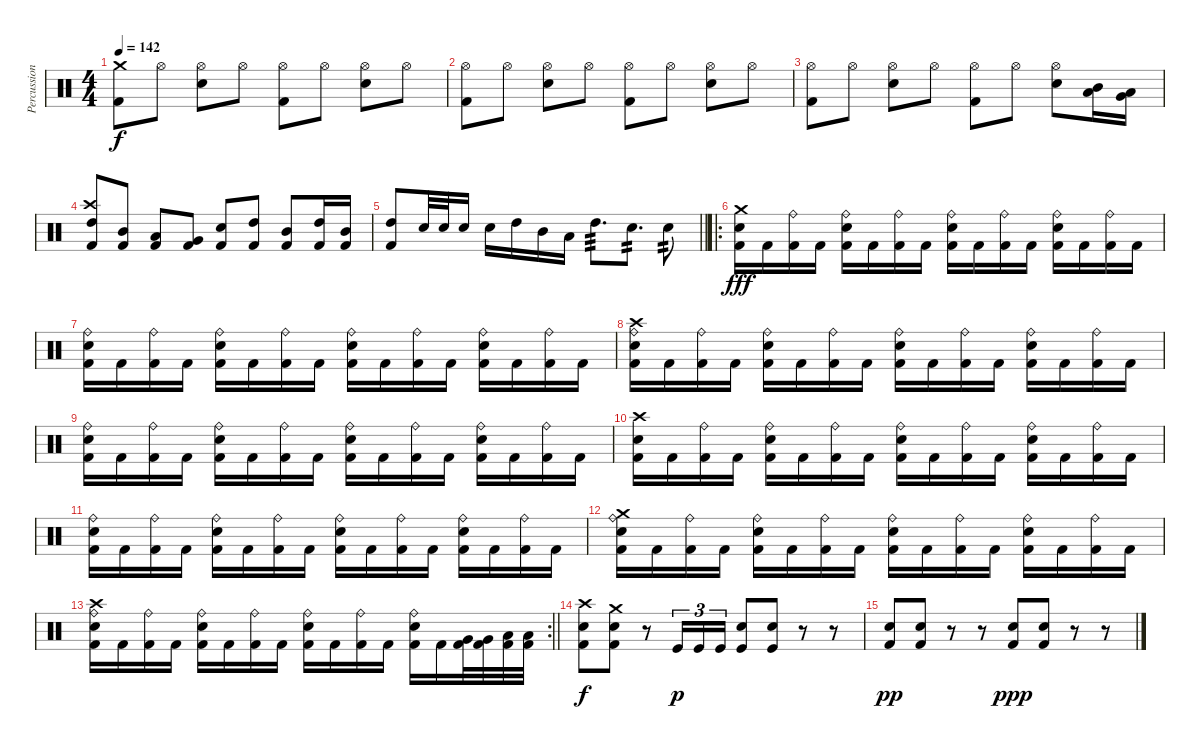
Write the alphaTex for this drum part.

\track ("Percussions" "Percussion") {instrument percussion}
\staff {score}
\articulation defaults
\ts (4 4)
\tempo 142
\clef neutral
\ks c
("Crash medium (hit)" "Kick (hit) 2").8{dy f} "Hi-Hat (open)".8 ("Hi-Hat (open)" "Electric Snare (hit)").8 "Hi-Hat (open)".8 ("Hi-Hat (open)" "Kick (hit) 2").8 "Hi-Hat (open)".8 ("Hi-Hat (open)" "Electric Snare (hit)").8 "Hi-Hat (open)".8 |
("Hi-Hat (open)" "Kick (hit) 2").8 "Hi-Hat (open)".8 ("Hi-Hat (open)" "Electric Snare (hit)").8 "Hi-Hat (open)".8 ("Hi-Hat (open)" "Kick (hit) 2").8 "Hi-Hat (open)".8 ("Hi-Hat (open)" "Electric Snare (hit)").8 "Hi-Hat (open)".8 |
("Hi-Hat (open)" "Kick (hit) 2").8 "Hi-Hat (open)".8 ("Hi-Hat (open)" "Electric Snare (hit)").8 "Hi-Hat (open)".8 ("Hi-Hat (open)" "Kick (hit) 2").8 "Hi-Hat (open)".8 ("Hi-Hat (open)" "Electric Snare (hit)").8 ("Mid Tom (hit)" "Low Tom (hit)").16 ("Low Tom (hit)" "Very Low Tom (hit)").16 |
("Crash high (hit)" "High Tom (hit)" "Kick (hit) 2").8 ("Mid Tom (hit)" "Kick (hit) 2").8 ("Low Tom (hit)" "Kick (hit) 2").8 ("Very Low Tom (hit)" "Kick (hit) 2").8 ("Electric Snare (hit)" "Kick (hit) 2").8 ("High Tom (hit)" "Kick (hit) 2").8 ("Mid Tom (hit)" "Kick (hit) 2").8 ("High Tom (hit)" "Kick (hit) 2").16 ("Mid Tom (hit)" "Kick (hit) 2").16 |
\barLineRight lightlight
("High Tom (hit)" "Kick (hit) 2").8 "Electric Snare (hit)".32 "Electric Snare (hit)".32 "Electric Snare (hit)".16 "Electric Snare (hit)".16 "High Tom (hit)".16 "Mid Tom (hit)".16 "Low Tom (hit)".16 "High Tom (hit)".8{d tp 3} "Electric Snare (hit)".8{d tp 2} "Electric Snare (hit)".8{tp 2} |
\ro
("Crash medium (hit)" "Electric Snare (hit)" "Kick (hit) 2").16{dy fff} "Kick (hit) 2".16 ("Ride (bell)" "Kick (hit) 2").16 "Kick (hit) 2".16 ("Ride (bell)" "Electric Snare (hit)" "Kick (hit) 2").16 "Kick (hit) 2".16 ("Ride (bell)" "Kick (hit) 2").16 "Kick (hit) 2".16 ("Ride (bell)" "Electric Snare (hit)" "Kick (hit) 2").16 "Kick (hit) 2".16 ("Ride (bell)" "Kick (hit) 2").16 "Kick (hit) 2".16 ("Ride (bell)" "Electric Snare (hit)" "Kick (hit) 2").16 "Kick (hit) 2".16 ("Ride (bell)" "Kick (hit) 2").16 "Kick (hit) 2".16 |
("Ride (bell)" "Electric Snare (hit)" "Kick (hit) 2").16 "Kick (hit) 2".16 ("Ride (bell)" "Kick (hit) 2").16 "Kick (hit) 2".16 ("Ride (bell)" "Electric Snare (hit)" "Kick (hit) 2").16 "Kick (hit) 2".16 ("Ride (bell)" "Kick (hit) 2").16 "Kick (hit) 2".16 ("Ride (bell)" "Electric Snare (hit)" "Kick (hit) 2").16 "Kick (hit) 2".16 ("Ride (bell)" "Kick (hit) 2").16 "Kick (hit) 2".16 ("Ride (bell)" "Electric Snare (hit)" "Kick (hit) 2").16 "Kick (hit) 2".16 ("Ride (bell)" "Kick (hit) 2").16 "Kick (hit) 2".16 |
("Ride (bell)" "Crash high (hit)" "Electric Snare (hit)" "Kick (hit) 2").16 "Kick (hit) 2".16 ("Ride (bell)" "Kick (hit) 2").16 "Kick (hit) 2".16 ("Ride (bell)" "Electric Snare (hit)" "Kick (hit) 2").16 "Kick (hit) 2".16 ("Ride (bell)" "Kick (hit) 2").16 "Kick (hit) 2".16 ("Ride (bell)" "Electric Snare (hit)" "Kick (hit) 2").16 "Kick (hit) 2".16 ("Ride (bell)" "Kick (hit) 2").16 "Kick (hit) 2".16 ("Ride (bell)" "Electric Snare (hit)" "Kick (hit) 2").16 "Kick (hit) 2".16 ("Ride (bell)" "Kick (hit) 2").16 "Kick (hit) 2".16 |
("Ride (bell)" "Electric Snare (hit)" "Kick (hit) 2").16 "Kick (hit) 2".16 ("Ride (bell)" "Kick (hit) 2").16 "Kick (hit) 2".16 ("Ride (bell)" "Electric Snare (hit)" "Kick (hit) 2").16 "Kick (hit) 2".16 ("Ride (bell)" "Kick (hit) 2").16 "Kick (hit) 2".16 ("Ride (bell)" "Electric Snare (hit)" "Kick (hit) 2").16 "Kick (hit) 2".16 ("Ride (bell)" "Kick (hit) 2").16 "Kick (hit) 2".16 ("Ride (bell)" "Electric Snare (hit)" "Kick (hit) 2").16 "Kick (hit) 2".16 ("Ride (bell)" "Kick (hit) 2").16 "Kick (hit) 2".16 |
("Crash high (hit)" "Electric Snare (hit)" "Kick (hit) 2").16 "Kick (hit) 2".16 ("Ride (bell)" "Kick (hit) 2").16 "Kick (hit) 2".16 ("Ride (bell)" "Electric Snare (hit)" "Kick (hit) 2").16 "Kick (hit) 2".16 ("Ride (bell)" "Kick (hit) 2").16 "Kick (hit) 2".16 ("Ride (bell)" "Electric Snare (hit)" "Kick (hit) 2").16 "Kick (hit) 2".16 ("Ride (bell)" "Kick (hit) 2").16 "Kick (hit) 2".16 ("Ride (bell)" "Electric Snare (hit)" "Kick (hit) 2").16 "Kick (hit) 2".16 ("Ride (bell)" "Kick (hit) 2").16 "Kick (hit) 2".16 |
("Ride (bell)" "Electric Snare (hit)" "Kick (hit) 2").16 "Kick (hit) 2".16 ("Ride (bell)" "Kick (hit) 2").16 "Kick (hit) 2".16 ("Ride (bell)" "Electric Snare (hit)" "Kick (hit) 2").16 "Kick (hit) 2".16 ("Ride (bell)" "Kick (hit) 2").16 "Kick (hit) 2".16 ("Ride (bell)" "Electric Snare (hit)" "Kick (hit) 2").16 "Kick (hit) 2".16 ("Ride (bell)" "Kick (hit) 2").16 "Kick (hit) 2".16 ("Ride (bell)" "Electric Snare (hit)" "Kick (hit) 2").16 "Kick (hit) 2".16 ("Ride (bell)" "Kick (hit) 2").16 "Kick (hit) 2".16 |
("Crash medium (hit)" "Ride (bell)" "Electric Snare (hit)" "Kick (hit) 2").16 "Kick (hit) 2".16 ("Ride (bell)" "Kick (hit) 2").16 "Kick (hit) 2".16 ("Ride (bell)" "Electric Snare (hit)" "Kick (hit) 2").16 "Kick (hit) 2".16 ("Ride (bell)" "Kick (hit) 2").16 "Kick (hit) 2".16 ("Ride (bell)" "Electric Snare (hit)" "Kick (hit) 2").16 "Kick (hit) 2".16 ("Ride (bell)" "Kick (hit) 2").16 "Kick (hit) 2".16 ("Ride (bell)" "Electric Snare (hit)" "Kick (hit) 2").16 "Kick (hit) 2".16 ("Ride (bell)" "Kick (hit) 2").16 "Kick (hit) 2".16 |
\rc 2
\barLineRight lightlight
("Ride (bell)" "Crash high (hit)" "Electric Snare (hit)" "Kick (hit) 2").16 "Kick (hit) 2".16 ("Ride (bell)" "Kick (hit) 2").16 "Kick (hit) 2".16 ("Ride (bell)" "Electric Snare (hit)" "Kick (hit) 2").16 "Kick (hit) 2".16 ("Ride (bell)" "Kick (hit) 2").16 "Kick (hit) 2".16 ("Ride (bell)" "Electric Snare (hit)" "Kick (hit) 2").16 "Kick (hit) 2".16 ("Ride (bell)" "Kick (hit) 2").16 "Kick (hit) 2".16 ("Ride (bell)" "Electric Snare (hit)" "Kick (hit) 2").16 "Kick (hit) 2".16 ("Very Low Tom (hit)" "Kick (hit) 2").32 ("Very Low Tom (hit)" "Kick (hit) 2").32 ("Low Floor Tom (hit)" "Kick (hit) 2").32 ("Low Floor Tom (hit)" "Kick (hit) 2").32 |
("Crash high (hit)" "Electric Snare (hit)" "Kick (hit) 2").8{dy f} ("Crash medium (hit)" "Electric Snare (hit)" "Kick (hit) 2").8 r.8 "Kick (hit)".16{tu (3 2) dy p} "Kick (hit)".16{tu (3 2)} "Kick (hit)".16{tu (3 2)} ("Electric Snare (hit)" "Kick (hit)").8 ("Electric Snare (hit)" "Kick (hit)").8 r.8 r.8 |
("Electric Snare (hit)" "Kick (hit) 2").8{dy pp} ("Electric Snare (hit)" "Kick (hit) 2").8 r.8 r.8 ("Electric Snare (hit)" "Kick (hit) 2").8{dy ppp} ("Electric Snare (hit)" "Kick (hit) 2").8 r.8 r.8
